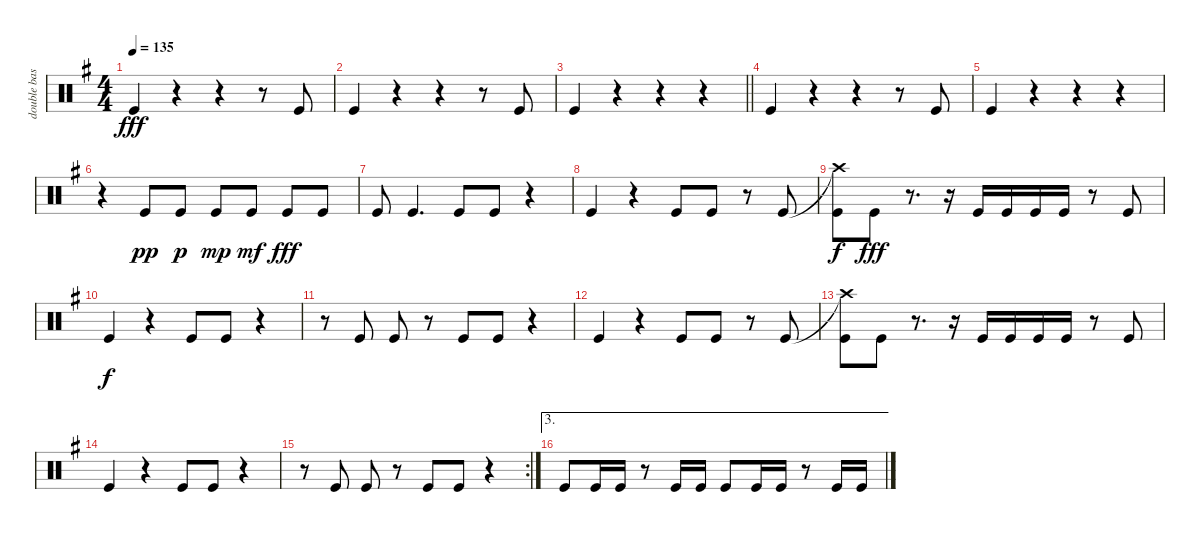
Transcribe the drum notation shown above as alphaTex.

\track ("double bass" "double bas") {instrument percussion}
\staff {score}
\articulation defaults
\ts (4 4)
\tempo 135
\clef neutral
\ks eminor "Kick (hit)".4{dy fff}
r.4 r.4 r.8 "Kick (hit)".8 |
"Kick (hit)".4 r.4 r.4 r.8 "Kick (hit)".8 |
\barLineRight lightlight "Kick (hit)".4
r.4 r.4 r.4 |
"Kick (hit)".4 r.4 r.4 r.8 "Kick (hit)".8 |
"Kick (hit)".4 r.4 r.4 r.4 |
r.4 "Kick (hit)".8{dy pp} "Kick (hit)".8{dy p} "Kick (hit)".8{dy mp} "Kick (hit)".8{dy mf} "Kick (hit)".8{dy fff} "Kick (hit)".8 |
"Kick (hit)".8 "Kick (hit)".4{d} "Kick (hit)".8 "Kick (hit)".8 r.4 |
"Kick (hit)".4 r.4 "Kick (hit)".8 "Kick (hit)".8 r.8 "Kick (hit)".8 |
("Crash high (hit)"{t} "Kick (hit)").8{dy f} "Kick (hit)".8{dy fff} r.8{d} r.16 "Kick (hit)".16 "Kick (hit)".16 "Kick (hit)".16 "Kick (hit)".16 r.8 "Kick (hit)".8 |
"Kick (hit)".4{dy f} r.4 "Kick (hit)".8 "Kick (hit)".8 r.4 |
r.8 "Kick (hit)".8 "Kick (hit)".8 r.8 "Kick (hit)".8 "Kick (hit)".8 r.4 |
"Kick (hit)".4 r.4 "Kick (hit)".8 "Kick (hit)".8 r.8 "Kick (hit)".8 |
("Crash high (hit)"{t} "Kick (hit)").8 "Kick (hit)".8 r.8{d} r.16 "Kick (hit)".16 "Kick (hit)".16 "Kick (hit)".16 "Kick (hit)".16 r.8 "Kick (hit)".8 |
"Kick (hit)".4 r.4 "Kick (hit)".8 "Kick (hit)".8 r.4 |
\rc 2
r.8 "Kick (hit)".8 "Kick (hit)".8 r.8 "Kick (hit)".8 "Kick (hit)".8 r.4 |
\ae 3 "Kick (hit)".8 "Kick (hit)".16 "Kick (hit)".16
r.8 "Kick (hit)".16 "Kick (hit)".16 "Kick (hit)".8 "Kick (hit)".16 "Kick (hit)".16 r.8 "Kick (hit)".16 "Kick (hit)".16
